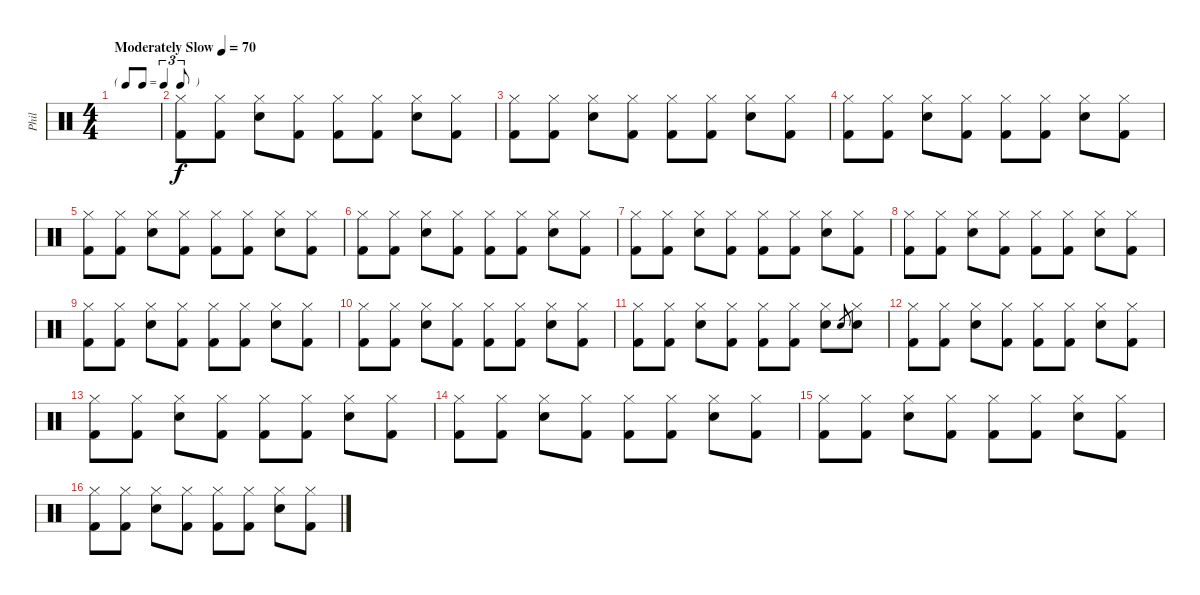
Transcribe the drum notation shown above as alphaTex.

\track ("Phil" "Phil") {instrument percussion}
\staff {score}
\articulation defaults
\ts (4 4)
\tf triplet8th
\tempo (70 "Moderately Slow")
\clef neutral
\ks c
|
("Hi-Hat (closed)" "Kick (hit) 2").8 ("Hi-Hat (closed)" "Kick (hit) 2").8 ("Hi-Hat (closed)" "Snare (hit) 2").8 ("Hi-Hat (closed)" "Kick (hit) 2").8 ("Hi-Hat (closed)" "Kick (hit) 2").8 ("Hi-Hat (closed)" "Kick (hit) 2").8 ("Hi-Hat (closed)" "Snare (hit) 2").8 ("Hi-Hat (closed)" "Kick (hit) 2").8 |
("Hi-Hat (closed)" "Kick (hit) 2").8 ("Hi-Hat (closed)" "Kick (hit) 2").8 ("Hi-Hat (closed)" "Snare (hit) 2").8 ("Hi-Hat (closed)" "Kick (hit) 2").8 ("Hi-Hat (closed)" "Kick (hit) 2").8 ("Hi-Hat (closed)" "Kick (hit) 2").8 ("Hi-Hat (closed)" "Snare (hit) 2").8 ("Hi-Hat (closed)" "Kick (hit) 2").8 |
("Hi-Hat (closed)" "Kick (hit) 2").8 ("Hi-Hat (closed)" "Kick (hit) 2").8 ("Hi-Hat (closed)" "Snare (hit) 2").8 ("Hi-Hat (closed)" "Kick (hit) 2").8 ("Hi-Hat (closed)" "Kick (hit) 2").8 ("Hi-Hat (closed)" "Kick (hit) 2").8 ("Hi-Hat (closed)" "Snare (hit) 2").8 ("Hi-Hat (closed)" "Kick (hit) 2").8 |
("Hi-Hat (closed)" "Kick (hit) 2").8 ("Hi-Hat (closed)" "Kick (hit) 2").8 ("Hi-Hat (closed)" "Snare (hit) 2").8 ("Hi-Hat (closed)" "Kick (hit) 2").8 ("Hi-Hat (closed)" "Kick (hit) 2").8 ("Hi-Hat (closed)" "Kick (hit) 2").8 ("Hi-Hat (closed)" "Snare (hit) 2").8 ("Hi-Hat (closed)" "Kick (hit) 2").8 |
("Hi-Hat (closed)" "Kick (hit) 2").8 ("Hi-Hat (closed)" "Kick (hit) 2").8 ("Hi-Hat (closed)" "Snare (hit) 2").8 ("Hi-Hat (closed)" "Kick (hit) 2").8 ("Hi-Hat (closed)" "Kick (hit) 2").8 ("Hi-Hat (closed)" "Kick (hit) 2").8 ("Hi-Hat (closed)" "Snare (hit) 2").8 ("Hi-Hat (closed)" "Kick (hit) 2").8 |
("Hi-Hat (closed)" "Kick (hit) 2").8 ("Hi-Hat (closed)" "Kick (hit) 2").8 ("Hi-Hat (closed)" "Snare (hit) 2").8 ("Hi-Hat (closed)" "Kick (hit) 2").8 ("Hi-Hat (closed)" "Kick (hit) 2").8 ("Hi-Hat (closed)" "Kick (hit) 2").8 ("Hi-Hat (closed)" "Snare (hit) 2").8 ("Hi-Hat (closed)" "Kick (hit) 2").8 |
("Hi-Hat (closed)" "Kick (hit) 2").8 ("Hi-Hat (closed)" "Kick (hit) 2").8 ("Hi-Hat (closed)" "Snare (hit) 2").8 ("Hi-Hat (closed)" "Kick (hit) 2").8 ("Hi-Hat (closed)" "Kick (hit) 2").8 ("Hi-Hat (closed)" "Kick (hit) 2").8 ("Hi-Hat (closed)" "Snare (hit) 2").8 ("Hi-Hat (closed)" "Kick (hit) 2").8 |
("Hi-Hat (closed)" "Kick (hit) 2").8 ("Hi-Hat (closed)" "Kick (hit) 2").8 ("Hi-Hat (closed)" "Snare (hit) 2").8 ("Hi-Hat (closed)" "Kick (hit) 2").8 ("Hi-Hat (closed)" "Kick (hit) 2").8 ("Hi-Hat (closed)" "Kick (hit) 2").8 ("Hi-Hat (closed)" "Snare (hit) 2").8 ("Hi-Hat (closed)" "Kick (hit) 2").8 |
("Hi-Hat (closed)" "Kick (hit) 2").8 ("Hi-Hat (closed)" "Kick (hit) 2").8 ("Hi-Hat (closed)" "Snare (hit) 2").8 ("Hi-Hat (closed)" "Kick (hit) 2").8 ("Hi-Hat (closed)" "Kick (hit) 2").8 ("Hi-Hat (closed)" "Kick (hit) 2").8 ("Hi-Hat (closed)" "Snare (hit) 2").8 ("Hi-Hat (closed)" "Kick (hit) 2").8 |
("Hi-Hat (closed)" "Kick (hit) 2").8 ("Hi-Hat (closed)" "Kick (hit) 2").8 ("Hi-Hat (closed)" "Snare (hit) 2").8 ("Hi-Hat (closed)" "Kick (hit) 2").8 ("Hi-Hat (closed)" "Kick (hit) 2").8 ("Hi-Hat (closed)" "Kick (hit) 2").8 ("Hi-Hat (closed)" "Snare (hit) 2").8 "Snare (hit) 2".8{gr} ("Hi-Hat (closed)" "Snare (hit) 2").8 |
("Hi-Hat (closed)" "Kick (hit) 2").8 ("Hi-Hat (closed)" "Kick (hit) 2").8 ("Hi-Hat (closed)" "Snare (hit) 2").8 ("Hi-Hat (closed)" "Kick (hit) 2").8 ("Hi-Hat (closed)" "Kick (hit) 2").8 ("Hi-Hat (closed)" "Kick (hit) 2").8 ("Hi-Hat (closed)" "Snare (hit) 2").8 ("Hi-Hat (closed)" "Kick (hit) 2").8 |
("Hi-Hat (closed)" "Kick (hit) 2").8 ("Hi-Hat (closed)" "Kick (hit) 2").8 ("Hi-Hat (closed)" "Snare (hit) 2").8 ("Hi-Hat (closed)" "Kick (hit) 2").8 ("Hi-Hat (closed)" "Kick (hit) 2").8 ("Hi-Hat (closed)" "Kick (hit) 2").8 ("Hi-Hat (closed)" "Snare (hit) 2").8 ("Hi-Hat (closed)" "Kick (hit) 2").8 |
("Hi-Hat (closed)" "Kick (hit) 2").8 ("Hi-Hat (closed)" "Kick (hit) 2").8 ("Hi-Hat (closed)" "Snare (hit) 2").8 ("Hi-Hat (closed)" "Kick (hit) 2").8 ("Hi-Hat (closed)" "Kick (hit) 2").8 ("Hi-Hat (closed)" "Kick (hit) 2").8 ("Hi-Hat (closed)" "Snare (hit) 2").8 ("Hi-Hat (closed)" "Kick (hit) 2").8 |
("Hi-Hat (closed)" "Kick (hit) 2").8 ("Hi-Hat (closed)" "Kick (hit) 2").8 ("Hi-Hat (closed)" "Snare (hit) 2").8 ("Hi-Hat (closed)" "Kick (hit) 2").8 ("Hi-Hat (closed)" "Kick (hit) 2").8 ("Hi-Hat (closed)" "Kick (hit) 2").8 ("Hi-Hat (closed)" "Snare (hit) 2").8 ("Hi-Hat (closed)" "Kick (hit) 2").8 |
("Hi-Hat (closed)" "Kick (hit) 2").8 ("Hi-Hat (closed)" "Kick (hit) 2").8 ("Hi-Hat (closed)" "Snare (hit) 2").8 ("Hi-Hat (closed)" "Kick (hit) 2").8 ("Hi-Hat (closed)" "Kick (hit) 2").8 ("Hi-Hat (closed)" "Kick (hit) 2").8 ("Hi-Hat (closed)" "Snare (hit) 2").8 ("Hi-Hat (closed)" "Kick (hit) 2").8
